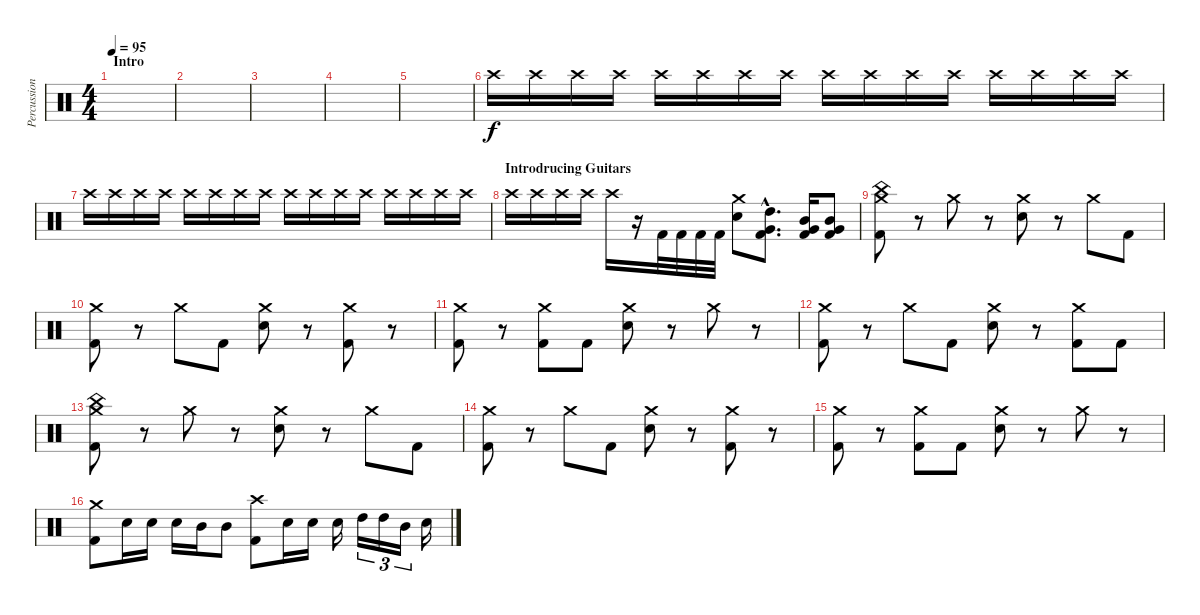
\track ("Percussions" "Percussion") {instrument percussion}
\staff {score}
\articulation defaults
\ts (4 4)
\section ("" "Intro")
\tempo 95
\clef neutral
\ks c
|
|
|
|
|
"Crash high (hit)".16{volume 13} "Crash high (hit)".16 "Crash high (hit)".16 "Crash high (hit)".16 "Crash high (hit)".16 "Crash high (hit)".16 "Crash high (hit)".16 "Crash high (hit)".16 "Crash high (hit)".16 "Crash high (hit)".16 "Crash high (hit)".16 "Crash high (hit)".16 "Crash high (hit)".16 "Crash high (hit)".16 "Crash high (hit)".16 "Crash high (hit)".16 |
"Crash high (hit)".16 "Crash high (hit)".16 "Crash high (hit)".16 "Crash high (hit)".16 "Crash high (hit)".16 "Crash high (hit)".16 "Crash high (hit)".16 "Crash high (hit)".16 "Crash high (hit)".16 "Crash high (hit)".16 "Crash high (hit)".16 "Crash high (hit)".16 "Crash high (hit)".16 "Crash high (hit)".16 "Crash high (hit)".16 "Crash high (hit)".16 |
\section ("" "Introdrucing Guitars")
"Crash high (hit)".16 "Crash high (hit)".16 "Crash high (hit)".16 "Crash high (hit)".16 "Crash high (hit)".16 r.16 "Kick (hit) 2".32 "Kick (hit) 2".32 "Kick (hit) 2".32 "Kick (hit) 2".32 ("Crash medium (hit)" "Electric Snare (hit)").8 ("High Tom (hit)"{hac} "Very Low Tom (hit)"{hac} "Kick (hit) 2"{hac}).8{d} ("Mid Tom (hit)" "Very Low Tom (hit)" "Kick (hit) 2").16 ("Mid Tom (hit)" "Very Low Tom (hit)" "Kick (hit) 2").8 |
("Crash medium (hit)" "China (hit)" "Kick (hit) 2").8 r.8 "Crash medium (hit)".8 r.8 ("Crash medium (hit)" "Electric Snare (hit)").8 r.8 "Crash medium (hit)".8 "Kick (hit) 2".8 |
("Crash medium (hit)" "Kick (hit) 2").8 r.8 "Crash medium (hit)".8 "Kick (hit) 2".8 ("Crash medium (hit)" "Electric Snare (hit)").8 r.8 ("Crash medium (hit)" "Kick (hit) 2").8 r.8 |
("Crash medium (hit)" "Kick (hit) 2").8 r.8 ("Crash medium (hit)" "Kick (hit) 2").8 "Kick (hit) 2".8 ("Crash medium (hit)" "Electric Snare (hit)").8 r.8 "Crash medium (hit)".8 r.8 |
("Crash medium (hit)" "Kick (hit) 2").8 r.8 "Crash medium (hit)".8 "Kick (hit) 2".8 ("Crash medium (hit)" "Electric Snare (hit)").8 r.8 ("Crash medium (hit)" "Kick (hit) 2").8 "Kick (hit) 2".8 |
("Crash medium (hit)" "China (hit)" "Kick (hit) 2").8 r.8 "Crash medium (hit)".8 r.8 ("Crash medium (hit)" "Electric Snare (hit)").8 r.8 "Crash medium (hit)".8 "Kick (hit) 2".8 |
("Crash medium (hit)" "Kick (hit) 2").8 r.8 "Crash medium (hit)".8 "Kick (hit) 2".8 ("Crash medium (hit)" "Electric Snare (hit)").8 r.8 ("Crash medium (hit)" "Kick (hit) 2").8 r.8 |
("Crash medium (hit)" "Kick (hit) 2").8 r.8 ("Crash medium (hit)" "Kick (hit) 2").8 "Kick (hit) 2".8 ("Crash medium (hit)" "Electric Snare (hit)").8 r.8 "Crash medium (hit)".8 r.8 |
("Crash medium (hit)" "Kick (hit) 2").8 "Electric Snare (hit)".16 "Electric Snare (hit)".16 "Electric Snare (hit)".16 "Mid Tom (hit)".16 "Mid Tom (hit)".8 ("Crash high (hit)" "Kick (hit) 2").8 "Electric Snare (hit)".16 "Electric Snare (hit)".16 "Electric Snare (hit)".16 "High Tom (hit)".16{tu (3 2)} "High Tom (hit)".16{tu (3 2)} "Mid Tom (hit)".16{tu (3 2)} "Electric Snare (hit)".16
